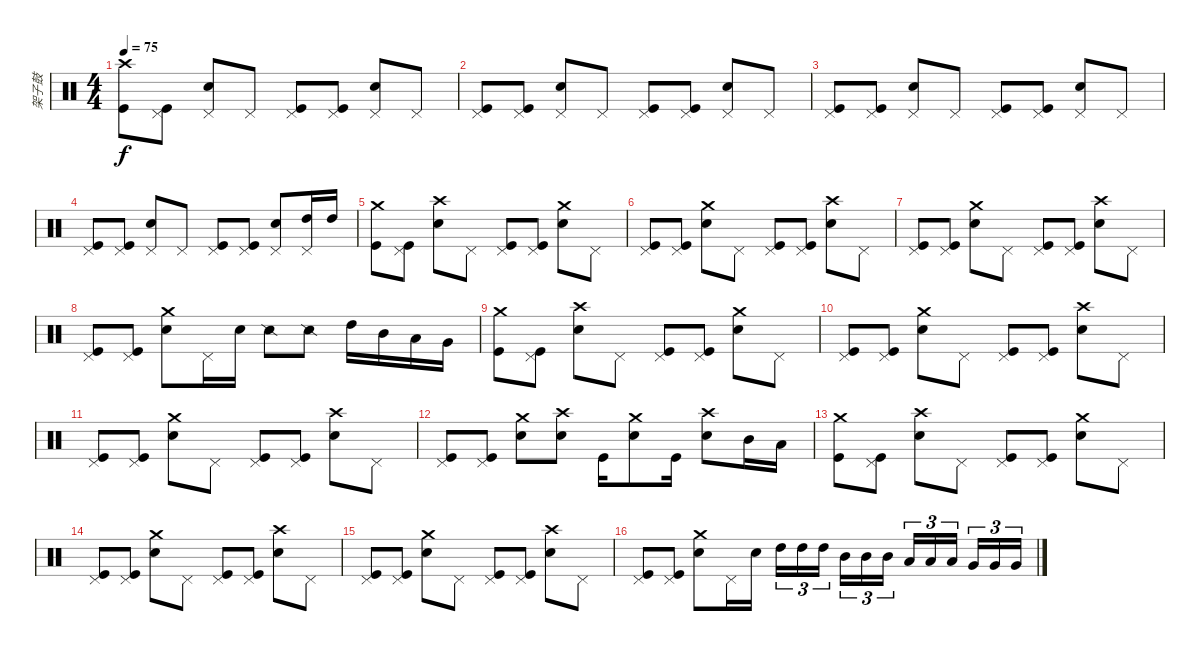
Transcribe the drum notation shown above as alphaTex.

\track ("架子鼓" "架子鼓") {instrument percussion}
\staff {score}
\articulation defaults
\ts (4 4)
\tempo 75
\clef neutral
\ks c
("Kick (hit)" "Crash high (hit)").8{dy f} ("Kick (hit)" "Pedal Hi-Hat (hit)").8 ("Snare (hit) 2" "Pedal Hi-Hat (hit)").8 "Pedal Hi-Hat (hit)".8 ("Kick (hit)" "Pedal Hi-Hat (hit)").8 ("Kick (hit)" "Pedal Hi-Hat (hit)").8 ("Snare (hit) 2" "Pedal Hi-Hat (hit)").8 "Pedal Hi-Hat (hit)".8 |
("Kick (hit)" "Pedal Hi-Hat (hit)").8 ("Kick (hit)" "Pedal Hi-Hat (hit)").8 ("Snare (hit) 2" "Pedal Hi-Hat (hit)").8 "Pedal Hi-Hat (hit)".8 ("Kick (hit)" "Pedal Hi-Hat (hit)").8 ("Kick (hit)" "Pedal Hi-Hat (hit)").8 ("Snare (hit) 2" "Pedal Hi-Hat (hit)").8 "Pedal Hi-Hat (hit)".8 |
("Kick (hit)" "Pedal Hi-Hat (hit)").8 ("Kick (hit)" "Pedal Hi-Hat (hit)").8 ("Snare (hit) 2" "Pedal Hi-Hat (hit)").8 "Pedal Hi-Hat (hit)".8 ("Kick (hit)" "Pedal Hi-Hat (hit)").8 ("Kick (hit)" "Pedal Hi-Hat (hit)").8 ("Snare (hit) 2" "Pedal Hi-Hat (hit)").8 "Pedal Hi-Hat (hit)".8 |
("Kick (hit)" "Pedal Hi-Hat (hit)").8 ("Kick (hit)" "Pedal Hi-Hat (hit)").8 ("Snare (hit) 2" "Pedal Hi-Hat (hit)").8 "Pedal Hi-Hat (hit)".8 ("Kick (hit)" "Pedal Hi-Hat (hit)").8 ("Kick (hit)" "Pedal Hi-Hat (hit)").8 ("Snare (hit) 2" "Pedal Hi-Hat (hit)").8 ("High Tom (hit)" "Pedal Hi-Hat (hit)").16 "High Tom (hit)".16 |
("Kick (hit)" "Crash medium (hit)").8 ("Kick (hit)" "Pedal Hi-Hat (hit)").8 ("Snare (hit) 2" "Crash high (hit)").8 "Pedal Hi-Hat (hit)".8 ("Kick (hit)" "Pedal Hi-Hat (hit)").8 ("Kick (hit)" "Pedal Hi-Hat (hit)").8 ("Snare (hit) 2" "Crash medium (hit)").8 "Pedal Hi-Hat (hit)".8 |
("Kick (hit)" "Pedal Hi-Hat (hit)").8 ("Kick (hit)" "Pedal Hi-Hat (hit)").8 ("Snare (hit) 2" "Crash medium (hit)").8 "Pedal Hi-Hat (hit)".8 ("Kick (hit)" "Pedal Hi-Hat (hit)").8 ("Kick (hit)" "Pedal Hi-Hat (hit)").8 ("Snare (hit) 2" "Crash high (hit)").8 "Pedal Hi-Hat (hit)".8 |
("Kick (hit)" "Pedal Hi-Hat (hit)").8 ("Kick (hit)" "Pedal Hi-Hat (hit)").8 ("Snare (hit) 2" "Crash medium (hit)").8 "Pedal Hi-Hat (hit)".8 ("Kick (hit)" "Pedal Hi-Hat (hit)").8 ("Kick (hit)" "Pedal Hi-Hat (hit)").8 ("Snare (hit) 2" "Crash high (hit)").8 "Pedal Hi-Hat (hit)".8 |
("Kick (hit)" "Pedal Hi-Hat (hit)").8 ("Kick (hit)" "Pedal Hi-Hat (hit)").8 ("Snare (hit) 2" "Crash medium (hit)").8 "Pedal Hi-Hat (hit)".16 "Snare (hit) 2".16 "Snare (side stick) 2".8 "Snare (side stick) 2".8 "High Tom (hit)".16 "Mid Tom (hit)".16 "Low Tom (hit)".16 "Very Low Tom (hit)".16 |
("Kick (hit)" "Crash medium (hit)").8 ("Kick (hit)" "Pedal Hi-Hat (hit)").8 ("Snare (hit) 2" "Crash high (hit)").8 "Pedal Hi-Hat (hit)".8 ("Kick (hit)" "Pedal Hi-Hat (hit)").8 ("Kick (hit)" "Pedal Hi-Hat (hit)").8 ("Snare (hit) 2" "Crash medium (hit)").8 "Pedal Hi-Hat (hit)".8 |
("Kick (hit)" "Pedal Hi-Hat (hit)").8 ("Kick (hit)" "Pedal Hi-Hat (hit)").8 ("Snare (hit) 2" "Crash medium (hit)").8 "Pedal Hi-Hat (hit)".8 ("Kick (hit)" "Pedal Hi-Hat (hit)").8 ("Kick (hit)" "Pedal Hi-Hat (hit)").8 ("Snare (hit) 2" "Crash high (hit)").8 "Pedal Hi-Hat (hit)".8 |
("Kick (hit)" "Pedal Hi-Hat (hit)").8 ("Kick (hit)" "Pedal Hi-Hat (hit)").8 ("Snare (hit) 2" "Crash medium (hit)").8 "Pedal Hi-Hat (hit)".8 ("Kick (hit)" "Pedal Hi-Hat (hit)").8 ("Kick (hit)" "Pedal Hi-Hat (hit)").8 ("Snare (hit) 2" "Crash high (hit)").8 "Pedal Hi-Hat (hit)".8 |
("Kick (hit)" "Pedal Hi-Hat (hit)").8 ("Kick (hit)" "Pedal Hi-Hat (hit)").8 ("Snare (hit) 2" "Crash medium (hit)").8 ("Snare (hit) 2" "Crash high (hit)").8 "Kick (hit)".16 ("Snare (hit) 2" "Crash medium (hit)").8 "Kick (hit)".16 ("Snare (hit) 2" "Crash high (hit)").8 "Mid Tom (hit)".16 "Low Tom (hit)".16 |
("Kick (hit)" "Crash medium (hit)").8 ("Kick (hit)" "Pedal Hi-Hat (hit)").8 ("Snare (hit) 2" "Crash high (hit)").8 "Pedal Hi-Hat (hit)".8 ("Kick (hit)" "Pedal Hi-Hat (hit)").8 ("Kick (hit)" "Pedal Hi-Hat (hit)").8 ("Snare (hit) 2" "Crash medium (hit)").8 "Pedal Hi-Hat (hit)".8 |
("Kick (hit)" "Pedal Hi-Hat (hit)").8 ("Kick (hit)" "Pedal Hi-Hat (hit)").8 ("Snare (hit) 2" "Crash medium (hit)").8 "Pedal Hi-Hat (hit)".8 ("Kick (hit)" "Pedal Hi-Hat (hit)").8 ("Kick (hit)" "Pedal Hi-Hat (hit)").8 ("Snare (hit) 2" "Crash high (hit)").8 "Pedal Hi-Hat (hit)".8 |
("Kick (hit)" "Pedal Hi-Hat (hit)").8 ("Kick (hit)" "Pedal Hi-Hat (hit)").8 ("Snare (hit) 2" "Crash medium (hit)").8 "Pedal Hi-Hat (hit)".8 ("Kick (hit)" "Pedal Hi-Hat (hit)").8 ("Kick (hit)" "Pedal Hi-Hat (hit)").8 ("Snare (hit) 2" "Crash high (hit)").8 "Pedal Hi-Hat (hit)".8 |
("Kick (hit)" "Pedal Hi-Hat (hit)").8 ("Kick (hit)" "Pedal Hi-Hat (hit)").8 ("Snare (hit) 2" "Crash medium (hit)").8 "Pedal Hi-Hat (hit)".16 "Snare (hit) 2".16 "High Tom (hit)".16{tu (3 2)} "High Tom (hit)".16{tu (3 2)} "High Tom (hit)".16{tu (3 2)} "Mid Tom (hit)".16{tu (3 2)} "Mid Tom (hit)".16{tu (3 2)} "Mid Tom (hit)".16{tu (3 2)} "Low Tom (hit)".16{tu (3 2)} "Low Tom (hit)".16{tu (3 2)} "Low Tom (hit)".16{tu (3 2)} "Very Low Tom (hit)".16{tu (3 2)} "Very Low Tom (hit)".16{tu (3 2)} "Very Low Tom (hit)".16{tu (3 2)}
